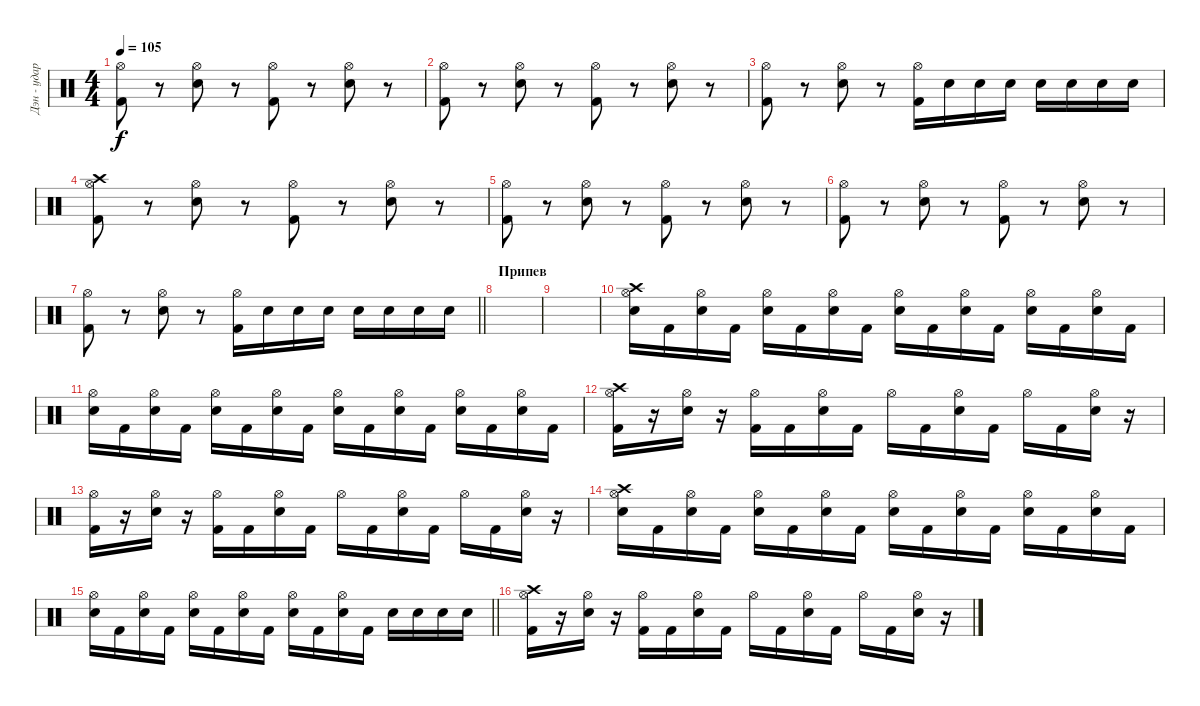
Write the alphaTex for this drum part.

\track ("Дэн - ударные" "Дэн - удар") {instrument percussion}
\staff {score}
\articulation defaults
\ts (4 4)
\tempo 105
\clef neutral
\ks c
("Hi-Hat (open)" "Kick (hit) 2").8{dy f} r.8 ("Hi-Hat (open)" "Electric Snare (hit)").8 r.8 ("Hi-Hat (open)" "Kick (hit) 2").8 r.8 ("Hi-Hat (open)" "Electric Snare (hit)").8 r.8 |
("Hi-Hat (open)" "Kick (hit) 2").8 r.8 ("Hi-Hat (open)" "Electric Snare (hit)").8 r.8 ("Hi-Hat (open)" "Kick (hit) 2").8 r.8 ("Hi-Hat (open)" "Electric Snare (hit)").8 r.8 |
("Hi-Hat (open)" "Kick (hit) 2").8 r.8 ("Hi-Hat (open)" "Electric Snare (hit)").8 r.8 ("Hi-Hat (open)" "Kick (hit) 2").16 "Electric Snare (hit)".16 "Electric Snare (hit)".16 "Electric Snare (hit)".16 "Electric Snare (hit)".16 "Electric Snare (hit)".16 "Electric Snare (hit)".16 "Electric Snare (hit)".16 |
("Crash high (hit)" "Hi-Hat (open)" "Kick (hit) 2").8 r.8 ("Hi-Hat (open)" "Electric Snare (hit)").8 r.8 ("Hi-Hat (open)" "Kick (hit) 2").8 r.8 ("Hi-Hat (open)" "Electric Snare (hit)").8 r.8 |
("Hi-Hat (open)" "Kick (hit) 2").8 r.8 ("Hi-Hat (open)" "Electric Snare (hit)").8 r.8 ("Hi-Hat (open)" "Kick (hit) 2").8 r.8 ("Hi-Hat (open)" "Electric Snare (hit)").8 r.8 |
("Hi-Hat (open)" "Kick (hit) 2").8 r.8 ("Hi-Hat (open)" "Electric Snare (hit)").8 r.8 ("Hi-Hat (open)" "Kick (hit) 2").8 r.8 ("Hi-Hat (open)" "Electric Snare (hit)").8 r.8 |
\barLineRight lightlight
("Hi-Hat (open)" "Kick (hit) 2").8 r.8 ("Hi-Hat (open)" "Electric Snare (hit)").8 r.8 ("Hi-Hat (open)" "Kick (hit) 2").16 "Electric Snare (hit)".16 "Electric Snare (hit)".16 "Electric Snare (hit)".16 "Electric Snare (hit)".16 "Electric Snare (hit)".16 "Electric Snare (hit)".16 "Electric Snare (hit)".16 |
\section ("" "Припев")
|
|
("Crash high (hit)" "Hi-Hat (open)" "Electric Snare (hit)").16 "Kick (hit) 2".16 ("Hi-Hat (open)" "Electric Snare (hit)").16 "Kick (hit) 2".16 ("Hi-Hat (open)" "Electric Snare (hit)").16 "Kick (hit) 2".16 ("Hi-Hat (open)" "Electric Snare (hit)").16 "Kick (hit) 2".16 ("Hi-Hat (open)" "Electric Snare (hit)").16 "Kick (hit) 2".16 ("Hi-Hat (open)" "Electric Snare (hit)").16 "Kick (hit) 2".16 ("Hi-Hat (open)" "Electric Snare (hit)").16 "Kick (hit) 2".16 ("Hi-Hat (open)" "Electric Snare (hit)").16 "Kick (hit) 2".16 |
("Hi-Hat (open)" "Electric Snare (hit)").16 "Kick (hit) 2".16 ("Hi-Hat (open)" "Electric Snare (hit)").16 "Kick (hit) 2".16 ("Hi-Hat (open)" "Electric Snare (hit)").16 "Kick (hit) 2".16 ("Hi-Hat (open)" "Electric Snare (hit)").16 "Kick (hit) 2".16 ("Hi-Hat (open)" "Electric Snare (hit)").16 "Kick (hit) 2".16 ("Hi-Hat (open)" "Electric Snare (hit)").16 "Kick (hit) 2".16 ("Hi-Hat (open)" "Electric Snare (hit)").16 "Kick (hit) 2".16 ("Hi-Hat (open)" "Electric Snare (hit)").16 "Kick (hit) 2".16 |
("Crash high (hit)" "Hi-Hat (open)" "Kick (hit) 2").16 r.16 ("Hi-Hat (open)" "Electric Snare (hit)").16 r.16 ("Hi-Hat (open)" "Kick (hit) 2").16 "Kick (hit) 2".16 ("Hi-Hat (open)" "Electric Snare (hit)").16 "Kick (hit) 2".16 "Hi-Hat (open)".16 "Kick (hit) 2".16 ("Hi-Hat (open)" "Electric Snare (hit)").16 "Kick (hit) 2".16 "Hi-Hat (open)".16 "Kick (hit) 2".16 ("Hi-Hat (open)" "Electric Snare (hit)").16 r.16 |
("Hi-Hat (open)" "Kick (hit) 2").16 r.16 ("Hi-Hat (open)" "Electric Snare (hit)").16 r.16 ("Hi-Hat (open)" "Kick (hit) 2").16 "Kick (hit) 2".16 ("Hi-Hat (open)" "Electric Snare (hit)").16 "Kick (hit) 2".16 "Hi-Hat (open)".16 "Kick (hit) 2".16 ("Hi-Hat (open)" "Electric Snare (hit)").16 "Kick (hit) 2".16 "Hi-Hat (open)".16 "Kick (hit) 2".16 ("Hi-Hat (open)" "Electric Snare (hit)").16 r.16 |
("Crash high (hit)" "Hi-Hat (open)" "Electric Snare (hit)").16 "Kick (hit) 2".16 ("Hi-Hat (open)" "Electric Snare (hit)").16 "Kick (hit) 2".16 ("Hi-Hat (open)" "Electric Snare (hit)").16 "Kick (hit) 2".16 ("Hi-Hat (open)" "Electric Snare (hit)").16 "Kick (hit) 2".16 ("Hi-Hat (open)" "Electric Snare (hit)").16 "Kick (hit) 2".16 ("Hi-Hat (open)" "Electric Snare (hit)").16 "Kick (hit) 2".16 ("Hi-Hat (open)" "Electric Snare (hit)").16 "Kick (hit) 2".16 ("Hi-Hat (open)" "Electric Snare (hit)").16 "Kick (hit) 2".16 |
\barLineRight lightlight
("Hi-Hat (open)" "Electric Snare (hit)").16 "Kick (hit) 2".16 ("Hi-Hat (open)" "Electric Snare (hit)").16 "Kick (hit) 2".16 ("Hi-Hat (open)" "Electric Snare (hit)").16 "Kick (hit) 2".16 ("Hi-Hat (open)" "Electric Snare (hit)").16 "Kick (hit) 2".16 ("Hi-Hat (open)" "Electric Snare (hit)").16 "Kick (hit) 2".16 ("Hi-Hat (open)" "Electric Snare (hit)").16 "Kick (hit) 2".16 "Electric Snare (hit)".16 "Electric Snare (hit)".16 "Electric Snare (hit)".16 "Electric Snare (hit)".16 |
("Crash high (hit)" "Hi-Hat (open)" "Kick (hit) 2").16 r.16 ("Hi-Hat (open)" "Electric Snare (hit)").16 r.16 ("Hi-Hat (open)" "Kick (hit) 2").16 "Kick (hit) 2".16 ("Hi-Hat (open)" "Electric Snare (hit)").16 "Kick (hit) 2".16 "Hi-Hat (open)".16 "Kick (hit) 2".16 ("Hi-Hat (open)" "Electric Snare (hit)").16 "Kick (hit) 2".16 "Hi-Hat (open)".16 "Kick (hit) 2".16 ("Hi-Hat (open)" "Electric Snare (hit)").16 r.16
